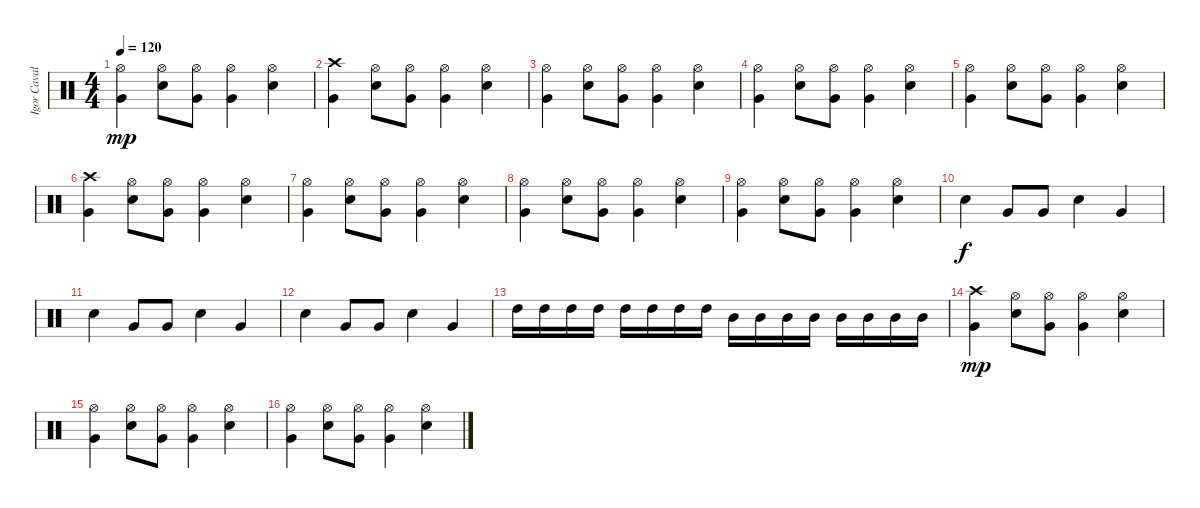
\track ("Igor Cavalera" "Igor Caval") {instrument percussion}
\staff {score}
\articulation defaults
\ts (4 4)
\tempo 120
\clef neutral
\ks c
("Hi-Hat (open)" "Very Low Tom (hit)").4{dy mp} ("Hi-Hat (open)" "Snare (hit) 2").8 ("Hi-Hat (open)" "Very Low Tom (hit)").8 ("Hi-Hat (open)" "Very Low Tom (hit)").4 ("Hi-Hat (open)" "Snare (hit) 2").4 |
("Crash high (hit)" "Very Low Tom (hit)").4 ("Hi-Hat (open)" "Snare (hit) 2").8 ("Hi-Hat (open)" "Very Low Tom (hit)").8 ("Hi-Hat (open)" "Very Low Tom (hit)").4 ("Hi-Hat (open)" "Snare (hit) 2").4 |
("Hi-Hat (open)" "Very Low Tom (hit)").4 ("Hi-Hat (open)" "Snare (hit) 2").8 ("Hi-Hat (open)" "Very Low Tom (hit)").8 ("Hi-Hat (open)" "Very Low Tom (hit)").4 ("Hi-Hat (open)" "Snare (hit) 2").4 |
("Hi-Hat (open)" "Very Low Tom (hit)").4 ("Hi-Hat (open)" "Snare (hit) 2").8 ("Hi-Hat (open)" "Very Low Tom (hit)").8 ("Hi-Hat (open)" "Very Low Tom (hit)").4 ("Hi-Hat (open)" "Snare (hit) 2").4 |
("Hi-Hat (open)" "Very Low Tom (hit)").4 ("Hi-Hat (open)" "Snare (hit) 2").8 ("Hi-Hat (open)" "Very Low Tom (hit)").8 ("Hi-Hat (open)" "Very Low Tom (hit)").4 ("Hi-Hat (open)" "Snare (hit) 2").4 |
("Crash high (hit)" "Very Low Tom (hit)").4 ("Hi-Hat (open)" "Snare (hit) 2").8 ("Hi-Hat (open)" "Very Low Tom (hit)").8 ("Hi-Hat (open)" "Very Low Tom (hit)").4 ("Hi-Hat (open)" "Snare (hit) 2").4 |
("Hi-Hat (open)" "Very Low Tom (hit)").4 ("Hi-Hat (open)" "Snare (hit) 2").8 ("Hi-Hat (open)" "Very Low Tom (hit)").8 ("Hi-Hat (open)" "Very Low Tom (hit)").4 ("Hi-Hat (open)" "Snare (hit) 2").4 |
("Hi-Hat (open)" "Very Low Tom (hit)").4 ("Hi-Hat (open)" "Snare (hit) 2").8 ("Hi-Hat (open)" "Very Low Tom (hit)").8 ("Hi-Hat (open)" "Very Low Tom (hit)").4 ("Hi-Hat (open)" "Snare (hit) 2").4 |
("Hi-Hat (open)" "Very Low Tom (hit)").4 ("Hi-Hat (open)" "Snare (hit) 2").8 ("Hi-Hat (open)" "Very Low Tom (hit)").8 ("Hi-Hat (open)" "Very Low Tom (hit)").4 ("Hi-Hat (open)" "Snare (hit) 2").4 |
"Snare (hit) 2".4{dy f} "Very Low Tom (hit)".8 "Very Low Tom (hit)".8 "Snare (hit) 2".4 "Very Low Tom (hit)".4 |
"Snare (hit) 2".4 "Very Low Tom (hit)".8 "Very Low Tom (hit)".8 "Snare (hit) 2".4 "Very Low Tom (hit)".4 |
"Snare (hit) 2".4 "Very Low Tom (hit)".8 "Very Low Tom (hit)".8 "Snare (hit) 2".4 "Very Low Tom (hit)".4 |
"High Tom (hit)".16 "High Tom (hit)".16 "High Tom (hit)".16 "High Tom (hit)".16 "High Tom (hit)".16 "High Tom (hit)".16 "High Tom (hit)".16 "High Tom (hit)".16 "Mid Tom (hit)".16 "Mid Tom (hit)".16 "Mid Tom (hit)".16 "Mid Tom (hit)".16 "Mid Tom (hit)".16 "Mid Tom (hit)".16 "Mid Tom (hit)".16 "Mid Tom (hit)".16 |
("Crash high (hit)" "Very Low Tom (hit)").4{dy mp} ("Hi-Hat (open)" "Snare (hit) 2").8 ("Hi-Hat (open)" "Very Low Tom (hit)").8 ("Hi-Hat (open)" "Very Low Tom (hit)").4 ("Hi-Hat (open)" "Snare (hit) 2").4 |
("Hi-Hat (open)" "Very Low Tom (hit)").4 ("Hi-Hat (open)" "Snare (hit) 2").8 ("Hi-Hat (open)" "Very Low Tom (hit)").8 ("Hi-Hat (open)" "Very Low Tom (hit)").4 ("Hi-Hat (open)" "Snare (hit) 2").4 |
("Hi-Hat (open)" "Very Low Tom (hit)").4 ("Hi-Hat (open)" "Snare (hit) 2").8 ("Hi-Hat (open)" "Very Low Tom (hit)").8 ("Hi-Hat (open)" "Very Low Tom (hit)").4 ("Hi-Hat (open)" "Snare (hit) 2").4
